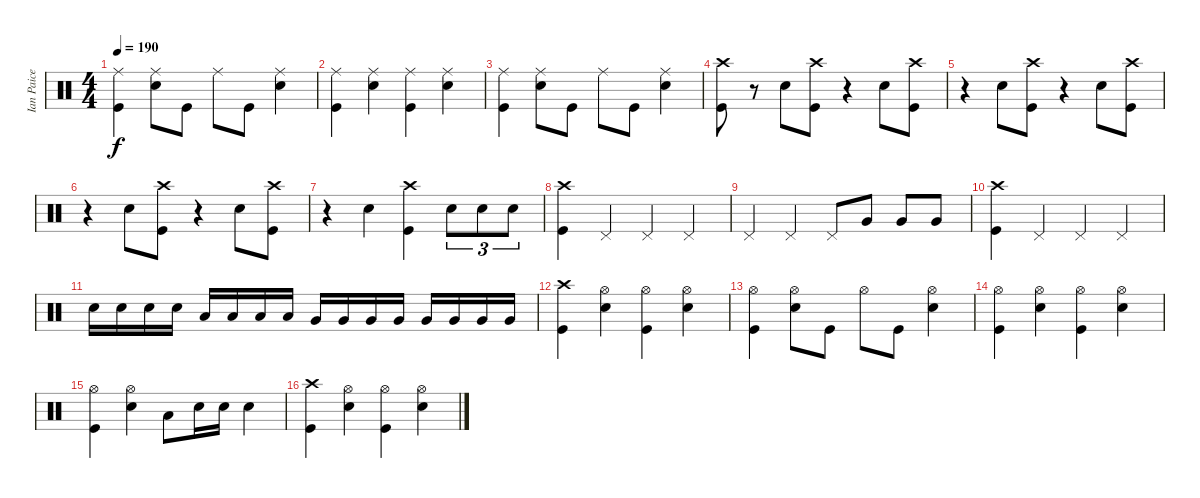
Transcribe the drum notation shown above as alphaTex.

\track ("Ian Paice" "Ian Paice") {instrument percussion}
\staff {score}
\articulation defaults
\ts (4 4)
\tempo 190
\clef neutral
\ks c
("Ride (middle)" "Kick (hit)").4{dy f} ("Snare (hit) 2" "Ride (middle)").8 "Kick (hit)".8 "Ride (middle)".8 "Kick (hit)".8 ("Ride (middle)" "Snare (hit) 2").4 |
("Ride (middle)" "Kick (hit)").4 ("Snare (hit) 2" "Ride (middle)").4 ("Ride (middle)" "Kick (hit)").4 ("Ride (middle)" "Snare (hit) 2").4 |
("Ride (middle)" "Kick (hit)").4 ("Snare (hit) 2" "Ride (middle)").8 "Kick (hit)".8 "Ride (middle)".8 "Kick (hit)".8 ("Ride (middle)" "Snare (hit) 2").4 |
("Kick (hit)" "Crash high (hit)").8 r.8 "Snare (hit) 2".8 ("Kick (hit)" "Crash high (hit)").8 r.4 "Snare (hit) 2".8 ("Kick (hit)" "Crash high (hit)").8 |
r.4 "Snare (hit) 2".8 ("Kick (hit)" "Crash high (hit)").8 r.4 "Snare (hit) 2".8 ("Kick (hit)" "Crash high (hit)").8 |
r.4 "Snare (hit) 2".8 ("Kick (hit)" "Crash high (hit)").8 r.4 "Snare (hit) 2".8 ("Kick (hit)" "Crash high (hit)").8 |
r.4 "Snare (hit) 2".4 ("Kick (hit)" "Crash high (hit)").4 "Snare (hit) 2".8{tu (3 2)} "Snare (hit) 2".8{tu (3 2)} "Snare (hit) 2".8{tu (3 2)} |
("Crash high (hit)" "Kick (hit)").4 "Pedal Hi-Hat (hit)".4 "Pedal Hi-Hat (hit)".4 "Pedal Hi-Hat (hit)".4 |
"Pedal Hi-Hat (hit)".4 "Pedal Hi-Hat (hit)".4 "Pedal Hi-Hat (hit)".8 "Very Low Tom (hit)".8 "Very Low Tom (hit)".8 "Very Low Tom (hit)".8 |
("Crash high (hit)" "Kick (hit)").4 "Pedal Hi-Hat (hit)".4 "Pedal Hi-Hat (hit)".4 "Pedal Hi-Hat (hit)".4 |
"Snare (hit) 2".16 "Snare (hit) 2".16 "Snare (hit) 2".16 "Snare (hit) 2".16 "Low Tom (hit)".16 "Low Tom (hit)".16 "Low Tom (hit)".16 "Low Tom (hit)".16 "Very Low Tom (hit)".16 "Very Low Tom (hit)".16 "Very Low Tom (hit)".16 "Very Low Tom (hit)".16 "Very Low Tom (hit)".16 "Very Low Tom (hit)".16 "Very Low Tom (hit)".16 "Very Low Tom (hit)".16 |
("Kick (hit)" "Crash high (hit)").4 ("Hi-Hat (open)" "Snare (hit) 2").4 ("Hi-Hat (open)" "Kick (hit)").4 ("Snare (hit) 2" "Hi-Hat (open)").4 |
("Kick (hit)" "Hi-Hat (open)").4 ("Hi-Hat (open)" "Snare (hit) 2").8 "Kick (hit)".8 "Hi-Hat (open)".8 "Kick (hit)".8 ("Hi-Hat (open)" "Snare (hit) 2").4 |
("Hi-Hat (open)" "Kick (hit)").4 ("Snare (hit) 2" "Hi-Hat (open)").4 ("Hi-Hat (open)" "Kick (hit)").4 ("Hi-Hat (open)" "Snare (hit) 2").4 |
("Kick (hit)" "Hi-Hat (open)").4 ("Snare (hit) 2" "Hi-Hat (open)").4 "Low Tom (hit)".8 "Snare (hit) 2".16 "Snare (hit) 2".16 "Snare (hit) 2".4 |
("Kick (hit)" "Crash high (hit)").4 ("Hi-Hat (open)" "Snare (hit) 2").4 ("Hi-Hat (open)" "Kick (hit)").4 ("Snare (hit) 2" "Hi-Hat (open)").4
